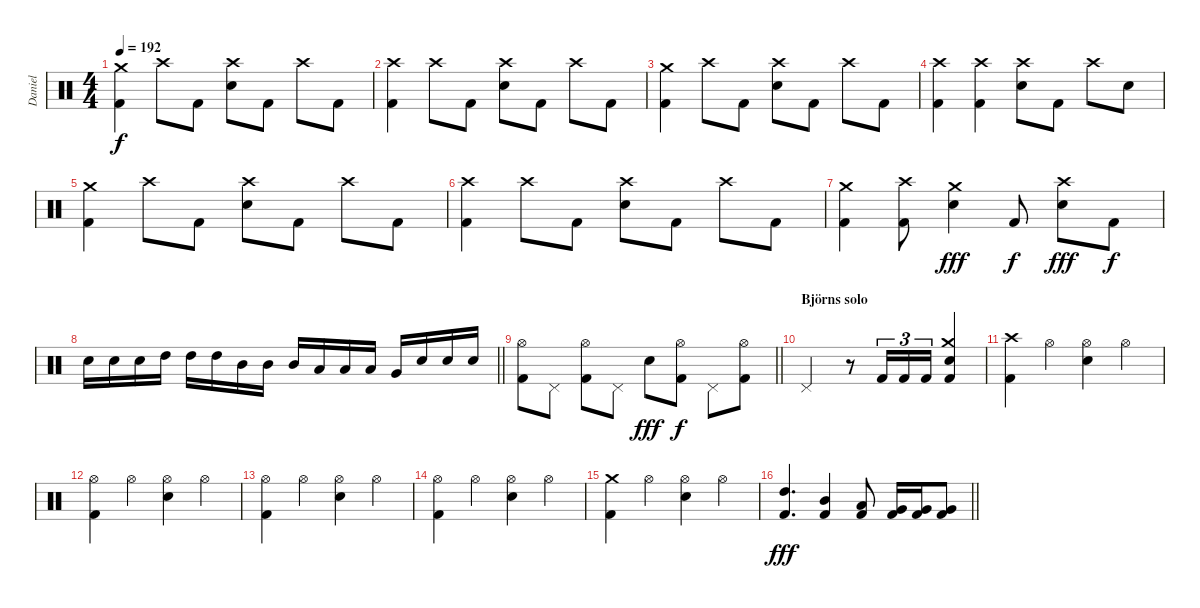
\track ("Daniel" "Daniel") {instrument percussion}
\staff {score}
\articulation defaults
\ts (4 4)
\tempo 192
\clef neutral
\ks c
("Kick (hit) 2" "Crash medium (hit)").4{dy f} "Crash high (hit)".8 "Kick (hit) 2".8 ("Electric Snare (hit)" "Crash high (hit)").8 "Kick (hit) 2".8 "Crash high (hit)".8 "Kick (hit) 2".8 |
("Kick (hit) 2" "Crash high (hit)").4 "Crash high (hit)".8 "Kick (hit) 2".8 ("Electric Snare (hit)" "Crash high (hit)").8 "Kick (hit) 2".8 "Crash high (hit)".8 "Kick (hit) 2".8 |
("Kick (hit) 2" "Crash medium (hit)").4 "Crash high (hit)".8 "Kick (hit) 2".8 ("Electric Snare (hit)" "Crash high (hit)").8 "Kick (hit) 2".8 "Crash high (hit)".8 "Kick (hit) 2".8 |
("Kick (hit) 2" "Crash high (hit)").4 ("Kick (hit) 2" "Crash high (hit)").4 ("Electric Snare (hit)" "Crash high (hit)").8 "Kick (hit) 2".8 "Crash high (hit)".8 "Electric Snare (hit)".8 |
("Kick (hit) 2" "Crash medium (hit)").4 "Crash high (hit)".8 "Kick (hit) 2".8 ("Electric Snare (hit)" "Crash high (hit)").8 "Kick (hit) 2".8 "Crash high (hit)".8 "Kick (hit) 2".8 |
("Kick (hit) 2" "Crash high (hit)").4 "Crash high (hit)".8 "Kick (hit) 2".8 ("Electric Snare (hit)" "Crash high (hit)").8 "Kick (hit) 2".8 "Crash high (hit)".8 "Kick (hit) 2".8 |
("Kick (hit) 2" "Crash medium (hit)").4 ("Kick (hit) 2" "Crash high (hit)").8 ("Electric Snare (hit)" "Crash medium (hit)").4{dy fff} "Kick (hit) 2".8{dy f} ("Electric Snare (hit)" "Crash high (hit)").8{dy fff} "Kick (hit) 2".8{dy f} |
\barLineRight lightlight "Electric Snare (hit)".16 "Electric Snare (hit)".16 "Electric Snare (hit)".16 "High Tom (hit)".16 "High Tom (hit)".16 "High Tom (hit)".16 "Mid Tom (hit)".16 "Mid Tom (hit)".16 "Mid Tom (hit)".16 "Low Tom (hit)".16 "Low Tom (hit)".16 "Low Tom (hit)".16 "Very Low Tom (hit)".16 "Electric Snare (hit)".16 "Electric Snare (hit)".16 "Electric Snare (hit)".16
|
\barLineRight lightlight
("Kick (hit) 2" "Hi-Hat (open)").8 "Pedal Hi-Hat (hit)".8 ("Kick (hit) 2" "Hi-Hat (open)").8 "Pedal Hi-Hat (hit)".8 "Electric Snare (hit)".8{dy fff} ("Kick (hit) 2" "Hi-Hat (open)").8{dy f} "Pedal Hi-Hat (hit)".8 ("Kick (hit) 2" "Hi-Hat (open)").8 |
\section ("" "Björns solo")
"Pedal Hi-Hat (hit)".2 r.8 "Kick (hit) 2".16{tu (3 2)} "Kick (hit) 2".16{tu (3 2)} "Kick (hit) 2".16{tu (3 2)} ("Kick (hit) 2" "Electric Snare (hit)" "Crash medium (hit)").4 |
("Kick (hit) 2" "Crash high (hit)").4 "Hi-Hat (open)".4 ("Electric Snare (hit)" "Hi-Hat (open)").4 "Hi-Hat (open)".4 |
("Kick (hit) 2" "Hi-Hat (open)").4 "Hi-Hat (open)".4 ("Electric Snare (hit)" "Hi-Hat (open)").4 "Hi-Hat (open)".4 |
("Kick (hit) 2" "Hi-Hat (open)").4 "Hi-Hat (open)".4 ("Electric Snare (hit)" "Hi-Hat (open)").4 "Hi-Hat (open)".4 |
("Kick (hit) 2" "Hi-Hat (open)").4 "Hi-Hat (open)".4 ("Electric Snare (hit)" "Hi-Hat (open)").4 "Hi-Hat (open)".4 |
("Kick (hit) 2" "Crash medium (hit)").4 "Hi-Hat (open)".4 ("Electric Snare (hit)" "Hi-Hat (open)").4 "Hi-Hat (open)".4 |
\barLineRight lightlight
("Kick (hit) 2" "High Tom (hit)").4{d dy fff} ("Kick (hit) 2" "Mid Tom (hit)").4 ("Kick (hit) 2" "Low Tom (hit)").8 ("Kick (hit) 2" "Very Low Tom (hit)").16 ("Kick (hit) 2" "Very Low Tom (hit)").16 ("Kick (hit) 2" "Very Low Tom (hit)").8
